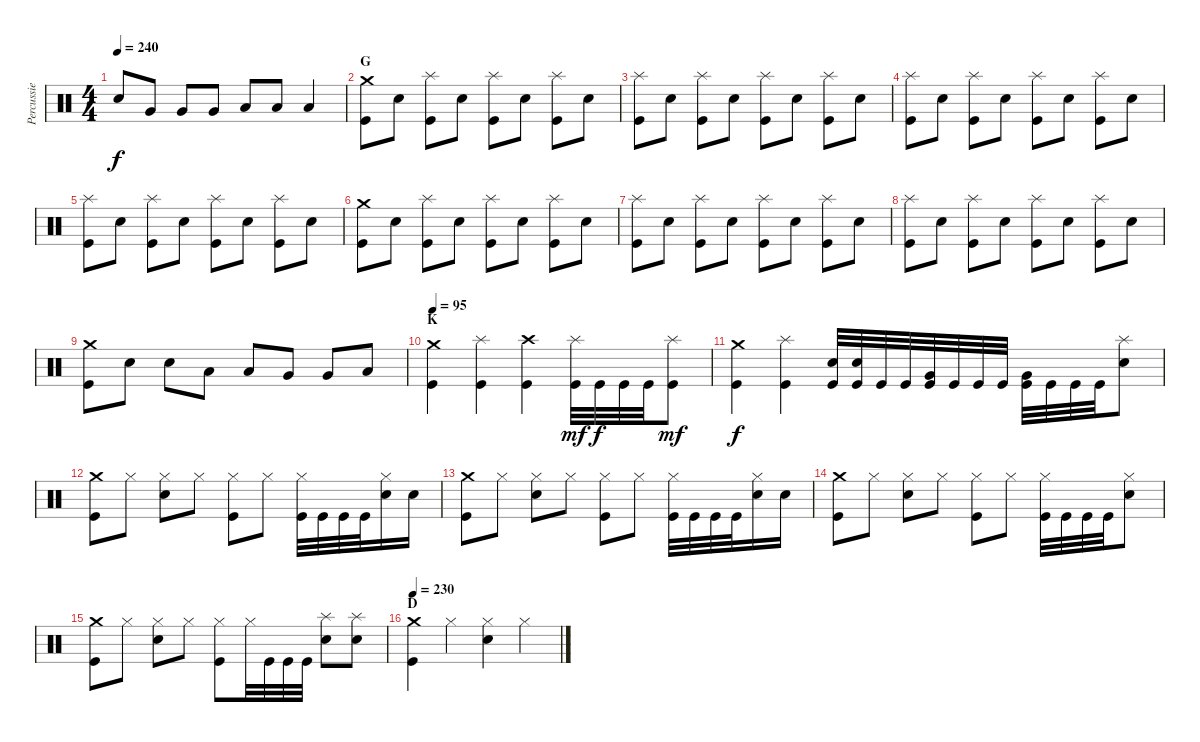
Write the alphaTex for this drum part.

\track ("Percussie" "Percussie") {instrument percussion}
\staff {score}
\articulation defaults
\ts (4 4)
\tempo 240
\clef neutral
\ks c "Electric Snare (hit)".8{dy f} "Very Low Tom (hit)".8 "Very Low Tom (hit)".8 "Very Low Tom (hit)".8 "Low Floor Tom (hit)".8 "Low Floor Tom (hit)".8 "Low Floor Tom (hit)".4
|
\section ("" "G")
("Crash medium (hit)" "Kick (hit)").8 "Electric Snare (hit)".8 ("Splash (hit)" "Kick (hit)").8 "Electric Snare (hit)".8 ("Splash (hit)" "Kick (hit)").8 "Electric Snare (hit)".8 ("Splash (hit)" "Kick (hit)").8 "Electric Snare (hit)".8 |
("Splash (hit)" "Kick (hit)").8 "Electric Snare (hit)".8 ("Splash (hit)" "Kick (hit)").8 "Electric Snare (hit)".8 ("Splash (hit)" "Kick (hit)").8 "Electric Snare (hit)".8 ("Splash (hit)" "Kick (hit)").8 "Electric Snare (hit)".8 |
("Splash (hit)" "Kick (hit)").8 "Electric Snare (hit)".8 ("Splash (hit)" "Kick (hit)").8 "Electric Snare (hit)".8 ("Splash (hit)" "Kick (hit)").8 "Electric Snare (hit)".8 ("Splash (hit)" "Kick (hit)").8 "Electric Snare (hit)".8 |
("Splash (hit)" "Kick (hit)").8 "Electric Snare (hit)".8 ("Splash (hit)" "Kick (hit)").8 "Electric Snare (hit)".8 ("Splash (hit)" "Kick (hit)").8 "Electric Snare (hit)".8 ("Splash (hit)" "Kick (hit)").8 "Electric Snare (hit)".8 |
("Crash medium (hit)" "Kick (hit)").8 "Electric Snare (hit)".8 ("Splash (hit)" "Kick (hit)").8 "Electric Snare (hit)".8 ("Splash (hit)" "Kick (hit)").8 "Electric Snare (hit)".8 ("Splash (hit)" "Kick (hit)").8 "Electric Snare (hit)".8 |
("Splash (hit)" "Kick (hit)").8 "Electric Snare (hit)".8 ("Splash (hit)" "Kick (hit)").8 "Electric Snare (hit)".8 ("Splash (hit)" "Kick (hit)").8 "Electric Snare (hit)".8 ("Splash (hit)" "Kick (hit)").8 "Electric Snare (hit)".8 |
("Splash (hit)" "Kick (hit)").8 "Electric Snare (hit)".8 ("Splash (hit)" "Kick (hit)").8 "Electric Snare (hit)".8 ("Splash (hit)" "Kick (hit)").8 "Electric Snare (hit)".8 ("Splash (hit)" "Kick (hit)").8 "Electric Snare (hit)".8 |
("Crash medium (hit)" "Kick (hit)").8 "Electric Snare (hit)".8 "Electric Snare (hit)".8 "Low Tom (hit)".8 "Low Tom (hit)".8 "Very Low Tom (hit)".8 "Very Low Tom (hit)".8 "Low Floor Tom (hit)".8 |
\section ("" "K")
\tempo 95
("Crash medium (hit)" "Kick (hit)").4 ("Splash (hit)" "Kick (hit)").4 ("Crash high (hit)" "Kick (hit)").4 ("Splash (hit)" "Kick (hit)").32{dy mf} "Kick (hit)".32{dy f} "Kick (hit)".32 "Kick (hit)".32 ("Splash (hit)" "Kick (hit)").8{dy mf} |
("Crash medium (hit)" "Kick (hit)").4{dy f} ("Splash (hit)" "Kick (hit)").4 ("Electric Snare (hit)" "Kick (hit)").32 ("Electric Snare (hit)" "Kick (hit)").32 "Kick (hit)".32 "Kick (hit)".32 ("Very Low Tom (hit)" "Kick (hit)").32 "Kick (hit)".32 "Kick (hit)".32 "Kick (hit)".32 ("Very Low Tom (hit)" "Kick (hit)").32 "Kick (hit)".32 "Kick (hit)".32 "Kick (hit)".32 ("Splash (hit)" "Electric Snare (hit)").8 |
("Crash medium (hit)" "Kick (hit)").8 "Hi-Hat (closed)".8 ("Hi-Hat (closed)" "Electric Snare (hit)").8 "Hi-Hat (closed)".8 ("Hi-Hat (closed)" "Kick (hit)").8 "Hi-Hat (closed)".8 ("Hi-Hat (closed)" "Kick (hit)").32 "Kick (hit)".32 "Kick (hit)".32 "Kick (hit)".32 ("Hi-Hat (closed)" "Electric Snare (hit)").16 "Electric Snare (hit)".16 |
("Crash medium (hit)" "Kick (hit)").8 "Hi-Hat (closed)".8 ("Hi-Hat (closed)" "Electric Snare (hit)").8 "Hi-Hat (closed)".8 ("Hi-Hat (closed)" "Kick (hit)").8 "Hi-Hat (closed)".8 ("Hi-Hat (closed)" "Kick (hit)").32 "Kick (hit)".32 "Kick (hit)".32 "Kick (hit)".32 ("Hi-Hat (closed)" "Electric Snare (hit)").16 "Electric Snare (hit)".16 |
("Crash medium (hit)" "Kick (hit)").8 "Hi-Hat (closed)".8 ("Hi-Hat (closed)" "Electric Snare (hit)").8 "Hi-Hat (closed)".8 ("Hi-Hat (closed)" "Kick (hit)").8 "Hi-Hat (closed)".8 ("Hi-Hat (closed)" "Kick (hit)").32 "Kick (hit)".32 "Kick (hit)".32 "Kick (hit)".32 ("Hi-Hat (closed)" "Electric Snare (hit)").8 |
("Crash medium (hit)" "Kick (hit)").8 "Hi-Hat (closed)".8 ("Hi-Hat (closed)" "Electric Snare (hit)").8 "Hi-Hat (closed)".8 ("Hi-Hat (closed)" "Kick (hit)").8 "Hi-Hat (closed)".32 "Kick (hit)".32 "Kick (hit)".32 "Kick (hit)".32 ("Splash (hit)" "Electric Snare (hit)").8 ("Splash (hit)" "Electric Snare (hit)").8 |
\section ("" "D")
\tempo 230
("Crash medium (hit)" "Kick (hit)").4 "Hi-Hat (closed)".4 ("Hi-Hat (closed)" "Electric Snare (hit)").4 "Hi-Hat (closed)".4
